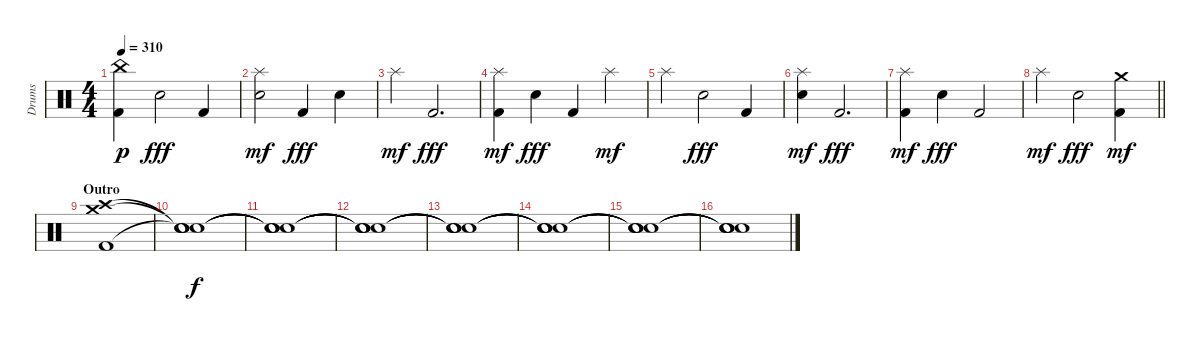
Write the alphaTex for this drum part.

\track ("Drums" "Drums") {solo instrument percussion}
\staff {score}
\articulation defaults
\ts (4 4)
\tempo 310
\clef neutral
\ks c
("Kick (hit) 2" "China (hit)").4{dy p} "Electric Snare (hit)".2{dy fff} "Kick (hit) 2".4 |
("Electric Snare (hit)" "Splash (hit)").2{dy mf} "Kick (hit) 2".4{dy fff} "Electric Snare (hit)".4 |
"Splash (hit)".4{dy mf} "Kick (hit) 2".2{d dy fff} |
("Kick (hit) 2" "Splash (hit)").4{dy mf} "Electric Snare (hit)".4{dy fff} "Kick (hit) 2".4 "Splash (hit)".4{dy mf} |
"Splash (hit)".4 "Electric Snare (hit)".2{dy fff} "Kick (hit) 2".4 |
("Electric Snare (hit)" "Splash (hit)").4{dy mf} "Kick (hit) 2".2{d dy fff} |
("Kick (hit) 2" "Splash (hit)").4{dy mf} "Electric Snare (hit)".4{dy fff} "Kick (hit) 2".2 |
\barLineRight lightlight "Splash (hit)".4{dy mf} "Electric Snare (hit)".2{dy fff}
("Kick (hit) 2" "Crash medium (hit)").4{dy mf} |
\section ("" "Outro")
("Kick (hit) 2" "Crash medium (hit)" "Crash high (hit)").1 |
("Snare (hit)"{t} "Snare (hit)"{t} "Snare (hit)"{t} "Snare (hit)").1{dy f} |
("Snare (hit)"{t} "Snare (hit)"{t} "Snare (hit)"{t} "Snare (hit)"{t}).1 |
("Snare (hit)"{t} "Snare (hit)"{t} "Snare (hit)"{t} "Snare (hit)"{t}).1 |
("Snare (hit)"{t} "Snare (hit)"{t} "Snare (hit)"{t} "Snare (hit)"{t}).1 |
("Snare (hit)"{t} "Snare (hit)"{t} "Snare (hit)"{t} "Snare (hit)"{t}).1 |
("Snare (hit)"{t} "Snare (hit)"{t} "Snare (hit)"{t} "Snare (hit)"{t}).1 |
("Snare (hit)"{t} "Snare (hit)"{t} "Snare (hit)"{t} "Snare (hit)"{t}).1
